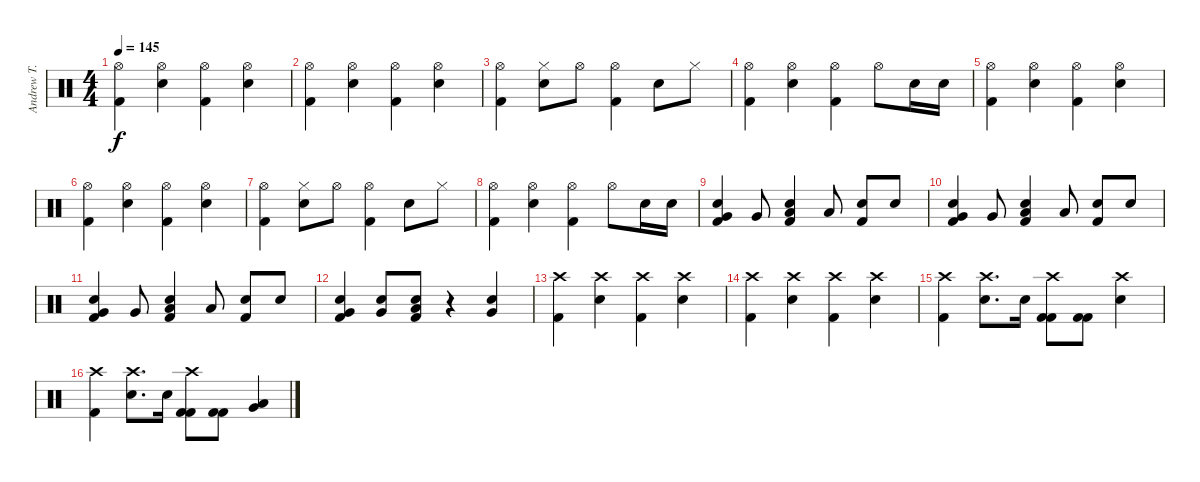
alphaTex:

\track ("Andrew T." "Andrew T.") {instrument percussion}
\staff {score}
\articulation defaults
\ts (4 4)
\tempo 145
\clef neutral
\ks c
("Kick (hit) 2" "Hi-Hat (open)").4{dy f} ("Electric Snare (hit)" "Hi-Hat (open)").4 ("Kick (hit) 2" "Hi-Hat (open)").4 ("Electric Snare (hit)" "Hi-Hat (open)").4 |
("Kick (hit) 2" "Hi-Hat (open)").4 ("Electric Snare (hit)" "Hi-Hat (open)").4 ("Kick (hit) 2" "Hi-Hat (open)").4 ("Electric Snare (hit)" "Hi-Hat (open)").4 |
("Hi-Hat (open)" "Kick (hit) 2").4 ("Hi-Hat (closed)" "Electric Snare (hit)").8 "Hi-Hat (open)".8 ("Kick (hit) 2" "Hi-Hat (open)").4 "Electric Snare (hit)".8 "Hi-Hat (closed)".8 |
("Hi-Hat (open)" "Kick (hit) 2").4 ("Hi-Hat (open)" "Electric Snare (hit)").4 ("Hi-Hat (open)" "Kick (hit) 2").4 "Hi-Hat (open)".8 "Electric Snare (hit)".16 "Electric Snare (hit)".16 |
("Kick (hit) 2" "Hi-Hat (open)").4 ("Electric Snare (hit)" "Hi-Hat (open)").4 ("Kick (hit) 2" "Hi-Hat (open)").4 ("Electric Snare (hit)" "Hi-Hat (open)").4 |
("Kick (hit) 2" "Hi-Hat (open)").4 ("Electric Snare (hit)" "Hi-Hat (open)").4 ("Kick (hit) 2" "Hi-Hat (open)").4 ("Electric Snare (hit)" "Hi-Hat (open)").4 |
("Hi-Hat (open)" "Kick (hit) 2").4 ("Hi-Hat (closed)" "Electric Snare (hit)").8 "Hi-Hat (open)".8 ("Kick (hit) 2" "Hi-Hat (open)").4 "Electric Snare (hit)".8 "Hi-Hat (closed)".8 |
("Hi-Hat (open)" "Kick (hit) 2").4 ("Hi-Hat (open)" "Electric Snare (hit)").4 ("Hi-Hat (open)" "Kick (hit) 2").4 "Hi-Hat (open)".8 "Electric Snare (hit)".16 "Electric Snare (hit)".16 |
("Kick (hit) 2" "Electric Snare (hit)" "Very Low Tom (hit)").4 "Very Low Tom (hit)".8 ("Kick (hit) 2" "Electric Snare (hit)" "Low Tom (hit)").4 "Low Tom (hit)".8 ("Kick (hit) 2" "Electric Snare (hit)").8 "Electric Snare (hit)".8 |
("Kick (hit) 2" "Electric Snare (hit)" "Very Low Tom (hit)").4 "Very Low Tom (hit)".8 ("Kick (hit) 2" "Electric Snare (hit)" "Low Tom (hit)").4 "Low Tom (hit)".8 ("Kick (hit) 2" "Electric Snare (hit)").8 "Electric Snare (hit)".8 |
("Kick (hit) 2" "Electric Snare (hit)" "Very Low Tom (hit)").4 "Very Low Tom (hit)".8 ("Kick (hit) 2" "Electric Snare (hit)" "Low Tom (hit)").4 "Low Tom (hit)".8 ("Kick (hit) 2" "Electric Snare (hit)").8 "Electric Snare (hit)".8 |
("Kick (hit) 2" "Electric Snare (hit)" "Very Low Tom (hit)").4 ("Electric Snare (hit)" "Very Low Tom (hit)").8 ("Kick (hit) 2" "Electric Snare (hit)" "Low Tom (hit)").8 r.4 ("Electric Snare (hit)" "Very Low Tom (hit)").4 |
("Crash high (hit)" "Kick (hit) 2").4 ("Crash high (hit)" "Electric Snare (hit)").4 ("Crash high (hit)" "Kick (hit) 2").4 ("Crash high (hit)" "Electric Snare (hit)").4 |
("Crash high (hit)" "Kick (hit) 2").4 ("Crash high (hit)" "Electric Snare (hit)").4 ("Crash high (hit)" "Kick (hit) 2").4 ("Crash high (hit)" "Electric Snare (hit)").4 |
("Crash high (hit)" "Kick (hit) 2").4 ("Crash high (hit)" "Electric Snare (hit)").8{d} "Electric Snare (hit)".16 ("Crash high (hit)" "Kick (hit) 2" "Kick (hit) 2").8 ("Kick (hit) 2" "Kick (hit) 2").8 ("Crash high (hit)" "Electric Snare (hit)").4 |
("Crash high (hit)" "Kick (hit) 2").4 ("Crash high (hit)" "Electric Snare (hit)").8{d} "Electric Snare (hit)".16 ("Crash high (hit)" "Kick (hit) 2" "Kick (hit) 2").8 ("Kick (hit) 2" "Kick (hit) 2").8 ("Very Low Tom (hit)" "Low Tom (hit)").4
